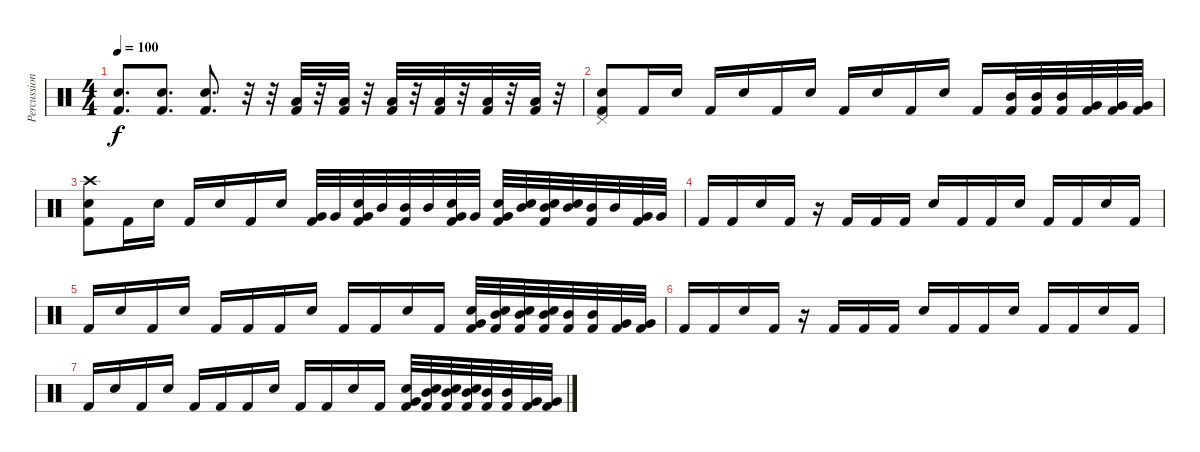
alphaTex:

\track ("Percussion" "Percussion") {instrument percussion}
\staff {score}
\articulation defaults
\ts (4 4)
\tempo 100
\clef neutral
\ks c
("Snare (hit) 2" "Kick (hit) 2").8{d dy f} ("Snare (hit) 2" "Kick (hit) 2").8{d} ("Snare (hit) 2" "Kick (hit) 2").8{d} r.32 r.32 ("Low Floor Tom (hit)" "Kick (hit) 2").32 r.32 ("Low Floor Tom (hit)" "Kick (hit) 2").32 r.32 ("Low Floor Tom (hit)" "Kick (hit) 2").32 r.32 ("Low Floor Tom (hit)" "Kick (hit) 2").32 r.32 ("Low Floor Tom (hit)" "Kick (hit) 2").32 r.32 ("Low Floor Tom (hit)" "Kick (hit) 2").32 r.32 |
("Pedal Hi-Hat (hit)" "Snare (hit) 2" "Kick (hit) 2").8 "Kick (hit) 2".16 "Snare (hit) 2".16 "Kick (hit) 2".16 "Snare (hit) 2".16 "Kick (hit) 2".16 "Snare (hit) 2".16 "Kick (hit) 2".16 "Snare (hit) 2".16 "Kick (hit) 2".16 "Snare (hit) 2".16 "Kick (hit) 2".16 ("Mid Tom (hit)" "Kick (hit) 2").32 ("Mid Tom (hit)" "Kick (hit) 2").32 ("Mid Tom (hit)" "Kick (hit) 2").32 ("Very Low Tom (hit)" "Kick (hit) 2").32 ("Very Low Tom (hit)" "Kick (hit) 2").32 ("Very Low Tom (hit)" "Kick (hit) 2").32 |
("Crash high (hit)" "Snare (hit) 2" "Kick (hit) 2").8 "Kick (hit) 2".16 "Snare (hit) 2".16 "Kick (hit) 2".16 "Snare (hit) 2".16 "Kick (hit) 2".16 "Snare (hit) 2".16 ("Very Low Tom (hit)" "Kick (hit) 2").32 "Very Low Tom (hit)".32 ("Very Low Tom (hit)" "Snare (hit) 2" "Kick (hit) 2").32 "Mid Tom (hit)".32 ("Mid Tom (hit)" "Kick (hit) 2").32 "Mid Tom (hit)".32 ("Very Low Tom (hit)" "Snare (hit) 2" "Kick (hit) 2").32 "Very Low Tom (hit)".32 ("Very Low Tom (hit)" "Snare (hit) 2" "Kick (hit) 2").32 ("Mid Tom (hit)" "Snare (hit) 2").32 ("Mid Tom (hit)" "Snare (hit) 2" "Kick (hit) 2").32 ("Mid Tom (hit)" "Snare (hit) 2").32 ("Mid Tom (hit)" "Kick (hit) 2").32 "Mid Tom (hit)".32 ("Very Low Tom (hit)" "Kick (hit) 2").32 "Very Low Tom (hit)".32 |
"Kick (hit) 2".16 "Kick (hit) 2".16 "Snare (hit) 2".16 "Kick (hit) 2".16 r.16 "Kick (hit) 2".16 "Kick (hit) 2".16 "Kick (hit) 2".16 "Snare (hit) 2".16 "Kick (hit) 2".16 "Kick (hit) 2".16 "Snare (hit) 2".16 "Kick (hit) 2".16 "Kick (hit) 2".16 "Snare (hit) 2".16 "Kick (hit) 2".16 |
"Kick (hit) 2".16 "Snare (hit) 2".16 "Kick (hit) 2".16 "Snare (hit) 2".16 "Kick (hit) 2".16 "Kick (hit) 2".16 "Kick (hit) 2".16 "Snare (hit) 2".16 "Kick (hit) 2".16 "Kick (hit) 2".16 "Snare (hit) 2".16 "Kick (hit) 2".16 ("Very Low Tom (hit)" "Snare (hit) 2" "Kick (hit) 2").32 ("Mid Tom (hit)" "Snare (hit) 2" "Kick (hit) 2").32 ("Mid Tom (hit)" "Snare (hit) 2" "Kick (hit) 2").32 ("Mid Tom (hit)" "Snare (hit) 2" "Kick (hit) 2").32 ("Mid Tom (hit)" "Kick (hit) 2").32 ("Mid Tom (hit)" "Kick (hit) 2").32 ("Very Low Tom (hit)" "Kick (hit) 2").32 ("Very Low Tom (hit)" "Kick (hit) 2").32 |
"Kick (hit) 2".16 "Kick (hit) 2".16 "Snare (hit) 2".16 "Kick (hit) 2".16 r.16 "Kick (hit) 2".16 "Kick (hit) 2".16 "Kick (hit) 2".16 "Snare (hit) 2".16 "Kick (hit) 2".16 "Kick (hit) 2".16 "Snare (hit) 2".16 "Kick (hit) 2".16 "Kick (hit) 2".16 "Snare (hit) 2".16 "Kick (hit) 2".16 |
"Kick (hit) 2".16 "Snare (hit) 2".16 "Kick (hit) 2".16 "Snare (hit) 2".16 "Kick (hit) 2".16 "Kick (hit) 2".16 "Kick (hit) 2".16 "Snare (hit) 2".16 "Kick (hit) 2".16 "Kick (hit) 2".16 "Snare (hit) 2".16 "Kick (hit) 2".16 ("Very Low Tom (hit)" "Snare (hit) 2" "Kick (hit) 2").32 ("Mid Tom (hit)" "Snare (hit) 2" "Kick (hit) 2").32 ("Mid Tom (hit)" "Snare (hit) 2" "Kick (hit) 2").32 ("Mid Tom (hit)" "Snare (hit) 2" "Kick (hit) 2").32 ("Mid Tom (hit)" "Kick (hit) 2").32 ("Mid Tom (hit)" "Kick (hit) 2").32 ("Very Low Tom (hit)" "Kick (hit) 2").32 ("Very Low Tom (hit)" "Kick (hit) 2").32
